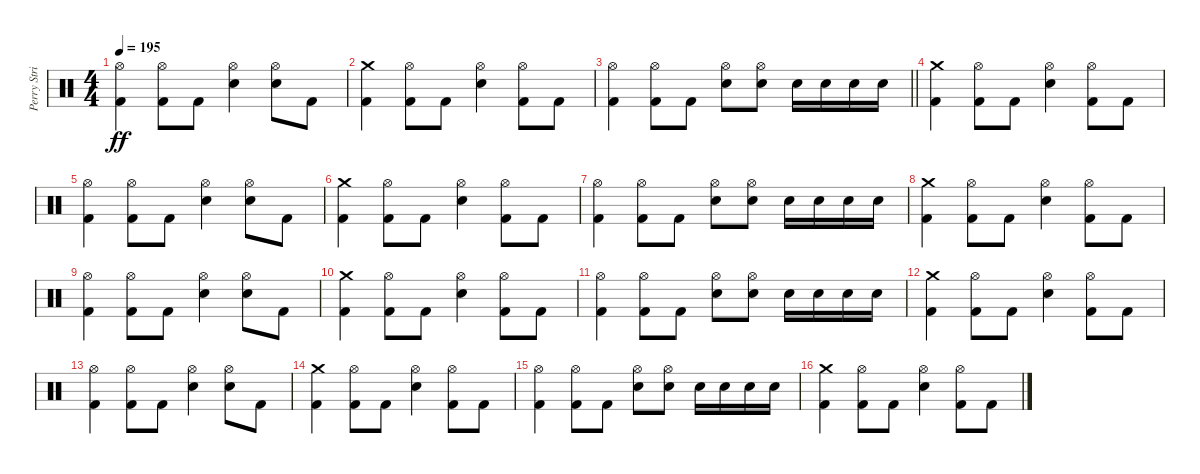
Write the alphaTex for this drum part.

\track ("Perry Strickland" "Perry Stri") {instrument percussion}
\staff {score}
\articulation defaults
\ts (4 4)
\tempo 195
\clef neutral
\ks c
("Hi-Hat (open)" "Kick (hit) 2").4{dy ff} ("Hi-Hat (open)" "Kick (hit) 2").8 "Kick (hit) 2".8 ("Hi-Hat (open)" "Snare (hit) 2").4 ("Hi-Hat (open)" "Snare (hit) 2").8 "Kick (hit) 2".8 |
("Crash medium (hit)" "Kick (hit) 2").4 ("Hi-Hat (open)" "Kick (hit) 2").8 "Kick (hit) 2".8 ("Hi-Hat (open)" "Snare (hit) 2").4 ("Hi-Hat (open)" "Kick (hit) 2").8 "Kick (hit) 2".8 |
\barLineRight lightlight
("Hi-Hat (open)" "Kick (hit) 2").4 ("Hi-Hat (open)" "Kick (hit) 2").8 "Kick (hit) 2".8 ("Hi-Hat (open)" "Snare (hit) 2").8 ("Hi-Hat (open)" "Snare (hit) 2").8 "Snare (hit) 2".16 "Snare (hit) 2".16 "Snare (hit) 2".16 "Snare (hit) 2".16 |
("Crash medium (hit)" "Kick (hit) 2").4 ("Hi-Hat (open)" "Kick (hit) 2").8 "Kick (hit) 2".8 ("Hi-Hat (open)" "Snare (hit) 2").4 ("Hi-Hat (open)" "Kick (hit) 2").8 "Kick (hit) 2".8 |
("Hi-Hat (open)" "Kick (hit) 2").4 ("Hi-Hat (open)" "Kick (hit) 2").8 "Kick (hit) 2".8 ("Hi-Hat (open)" "Snare (hit) 2").4 ("Hi-Hat (open)" "Snare (hit) 2").8 "Kick (hit) 2".8 |
("Crash medium (hit)" "Kick (hit) 2").4 ("Hi-Hat (open)" "Kick (hit) 2").8 "Kick (hit) 2".8 ("Hi-Hat (open)" "Snare (hit) 2").4 ("Hi-Hat (open)" "Kick (hit) 2").8 "Kick (hit) 2".8 |
("Hi-Hat (open)" "Kick (hit) 2").4 ("Hi-Hat (open)" "Kick (hit) 2").8 "Kick (hit) 2".8 ("Hi-Hat (open)" "Snare (hit) 2").8 ("Hi-Hat (open)" "Snare (hit) 2").8 "Snare (hit) 2".16 "Snare (hit) 2".16 "Snare (hit) 2".16 "Snare (hit) 2".16 |
("Crash medium (hit)" "Kick (hit) 2").4 ("Hi-Hat (open)" "Kick (hit) 2").8 "Kick (hit) 2".8 ("Hi-Hat (open)" "Snare (hit) 2").4 ("Hi-Hat (open)" "Kick (hit) 2").8 "Kick (hit) 2".8 |
("Hi-Hat (open)" "Kick (hit) 2").4 ("Hi-Hat (open)" "Kick (hit) 2").8 "Kick (hit) 2".8 ("Hi-Hat (open)" "Snare (hit) 2").4 ("Hi-Hat (open)" "Snare (hit) 2").8 "Kick (hit) 2".8 |
("Crash medium (hit)" "Kick (hit) 2").4 ("Hi-Hat (open)" "Kick (hit) 2").8 "Kick (hit) 2".8 ("Hi-Hat (open)" "Snare (hit) 2").4 ("Hi-Hat (open)" "Kick (hit) 2").8 "Kick (hit) 2".8 |
("Hi-Hat (open)" "Kick (hit) 2").4 ("Hi-Hat (open)" "Kick (hit) 2").8 "Kick (hit) 2".8 ("Hi-Hat (open)" "Snare (hit) 2").8 ("Hi-Hat (open)" "Snare (hit) 2").8 "Snare (hit) 2".16 "Snare (hit) 2".16 "Snare (hit) 2".16 "Snare (hit) 2".16 |
("Crash medium (hit)" "Kick (hit) 2").4 ("Hi-Hat (open)" "Kick (hit) 2").8 "Kick (hit) 2".8 ("Hi-Hat (open)" "Snare (hit) 2").4 ("Hi-Hat (open)" "Kick (hit) 2").8 "Kick (hit) 2".8 |
("Hi-Hat (open)" "Kick (hit) 2").4 ("Hi-Hat (open)" "Kick (hit) 2").8 "Kick (hit) 2".8 ("Hi-Hat (open)" "Snare (hit) 2").4 ("Hi-Hat (open)" "Snare (hit) 2").8 "Kick (hit) 2".8 |
("Crash medium (hit)" "Kick (hit) 2").4 ("Hi-Hat (open)" "Kick (hit) 2").8 "Kick (hit) 2".8 ("Hi-Hat (open)" "Snare (hit) 2").4 ("Hi-Hat (open)" "Kick (hit) 2").8 "Kick (hit) 2".8 |
("Hi-Hat (open)" "Kick (hit) 2").4 ("Hi-Hat (open)" "Kick (hit) 2").8 "Kick (hit) 2".8 ("Hi-Hat (open)" "Snare (hit) 2").8 ("Hi-Hat (open)" "Snare (hit) 2").8 "Snare (hit) 2".16 "Snare (hit) 2".16 "Snare (hit) 2".16 "Snare (hit) 2".16 |
("Crash medium (hit)" "Kick (hit) 2").4 ("Hi-Hat (open)" "Kick (hit) 2").8 "Kick (hit) 2".8 ("Hi-Hat (open)" "Snare (hit) 2").4 ("Hi-Hat (open)" "Kick (hit) 2").8 "Kick (hit) 2".8
